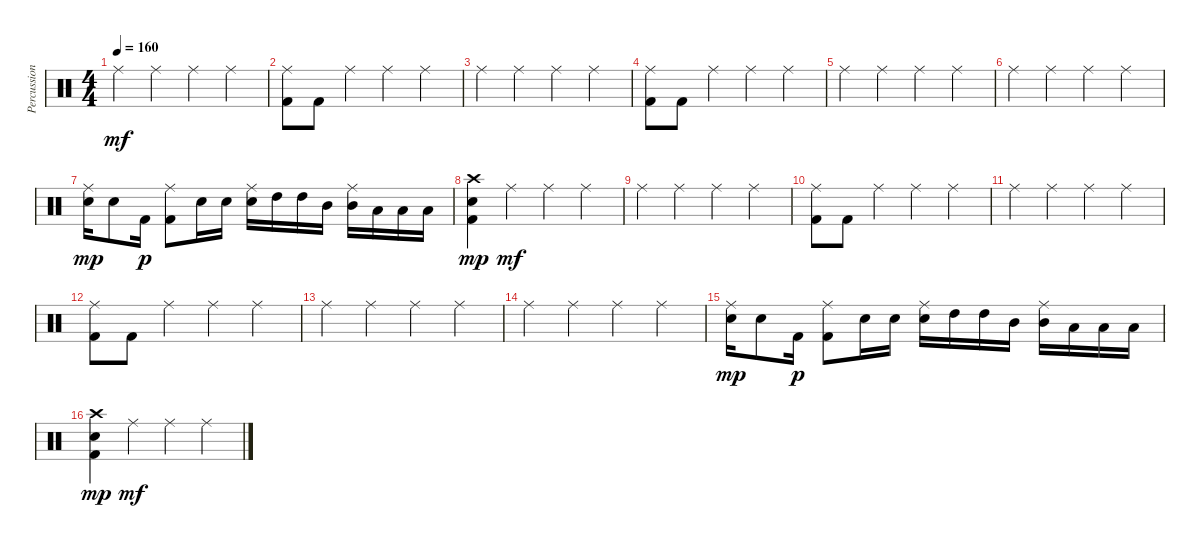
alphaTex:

\track ("Percussion" "Percussion") {instrument percussion}
\staff {score}
\articulation defaults
\ts (4 4)
\tempo 160
\clef neutral
\ks c "Ride (middle)".4{dy mf} "Ride (middle)".4 "Ride (middle)".4 "Ride (middle)".4
|
("Ride (middle)" "Kick (hit) 2").8 "Kick (hit) 2".8 "Ride (middle)".4 "Ride (middle)".4 "Ride (middle)".4 |
"Ride (middle)".4 "Ride (middle)".4 "Ride (middle)".4 "Ride (middle)".4 |
("Ride (middle)" "Kick (hit) 2").8 "Kick (hit) 2".8 "Ride (middle)".4 "Ride (middle)".4 "Ride (middle)".4 |
"Ride (middle)".4 "Ride (middle)".4 "Ride (middle)".4 "Ride (middle)".4 |
"Ride (middle)".4 "Ride (middle)".4 "Ride (middle)".4 "Ride (middle)".4 |
("Ride (middle)" "Electric Snare (hit)").16{dy mp} "Electric Snare (hit)".8 "Kick (hit) 2".16{dy p} ("Ride (middle)" "Kick (hit) 2").8 "Electric Snare (hit)".16 "Electric Snare (hit)".16 ("Ride (middle)" "Electric Snare (hit)").16 "High Tom (hit)".16 "High Tom (hit)".16 "Mid Tom (hit)".16 ("Ride (middle)" "Mid Tom (hit)").16 "Low Tom (hit)".16 "Low Tom (hit)".16 "Low Tom (hit)".16 |
("Crash high (hit)" "Electric Snare (hit)" "Kick (hit) 2").4{dy mp} "Ride (middle)".4{dy mf} "Ride (middle)".4 "Ride (middle)".4 |
"Ride (middle)".4 "Ride (middle)".4 "Ride (middle)".4 "Ride (middle)".4 |
("Ride (middle)" "Kick (hit) 2").8 "Kick (hit) 2".8 "Ride (middle)".4 "Ride (middle)".4 "Ride (middle)".4 |
"Ride (middle)".4 "Ride (middle)".4 "Ride (middle)".4 "Ride (middle)".4 |
("Ride (middle)" "Kick (hit) 2").8 "Kick (hit) 2".8 "Ride (middle)".4 "Ride (middle)".4 "Ride (middle)".4 |
"Ride (middle)".4 "Ride (middle)".4 "Ride (middle)".4 "Ride (middle)".4 |
"Ride (middle)".4 "Ride (middle)".4 "Ride (middle)".4 "Ride (middle)".4 |
("Ride (middle)" "Electric Snare (hit)").16{dy mp} "Electric Snare (hit)".8 "Kick (hit) 2".16{dy p} ("Ride (middle)" "Kick (hit) 2").8 "Electric Snare (hit)".16 "Electric Snare (hit)".16 ("Ride (middle)" "Electric Snare (hit)").16 "High Tom (hit)".16 "High Tom (hit)".16 "Mid Tom (hit)".16 ("Ride (middle)" "Mid Tom (hit)").16 "Low Tom (hit)".16 "Low Tom (hit)".16 "Low Tom (hit)".16 |
("Crash high (hit)" "Electric Snare (hit)" "Kick (hit) 2").4{dy mp} "Ride (middle)".4{dy mf} "Ride (middle)".4 "Ride (middle)".4
